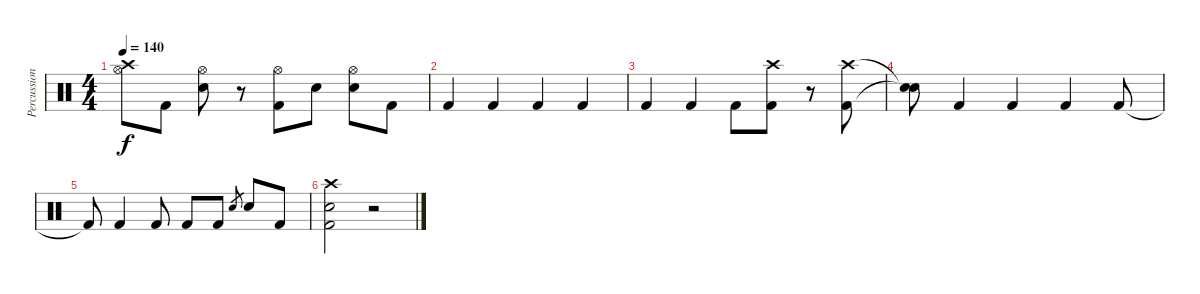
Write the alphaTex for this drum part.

\track ("Percussion" "Percussion") {instrument percussion}
\staff {score}
\articulation defaults
\ts (4 4)
\tempo 140
\clef neutral
\ks c
("Hi-Hat (open)" "Crash high (hit)").8{dy f} "Kick (hit) 2".8 ("Hi-Hat (open)" "Electric Snare (hit)").8 r.8 ("Hi-Hat (open)" "Kick (hit) 2").8 "Electric Snare (hit)".8 ("Hi-Hat (open)" "Electric Snare (hit)").8 "Kick (hit) 2".8 |
"Kick (hit) 2".4 "Kick (hit) 2".4 "Kick (hit) 2".4 "Kick (hit) 2".4 |
"Kick (hit) 2".4 "Kick (hit) 2".4 "Kick (hit) 2".8 ("Crash high (hit)" "Kick (hit) 2").8 r.8 ("Crash high (hit)" "Kick (hit) 2").8 |
("Snare (hit)"{t} "Snare (hit)"{t}).8 "Kick (hit) 2".4 "Kick (hit) 2".4 "Kick (hit) 2".4 "Kick (hit) 2".8 |
"Kick (hit) 2"{t}.8 "Kick (hit) 2".4 "Kick (hit) 2".8 "Kick (hit) 2".8 "Kick (hit) 2".8 "Electric Snare (hit)".8{gr} "Electric Snare (hit)".8 "Kick (hit) 2".8 |
("Crash high (hit)" "Electric Snare (hit)" "Kick (hit) 2").2 r.2
